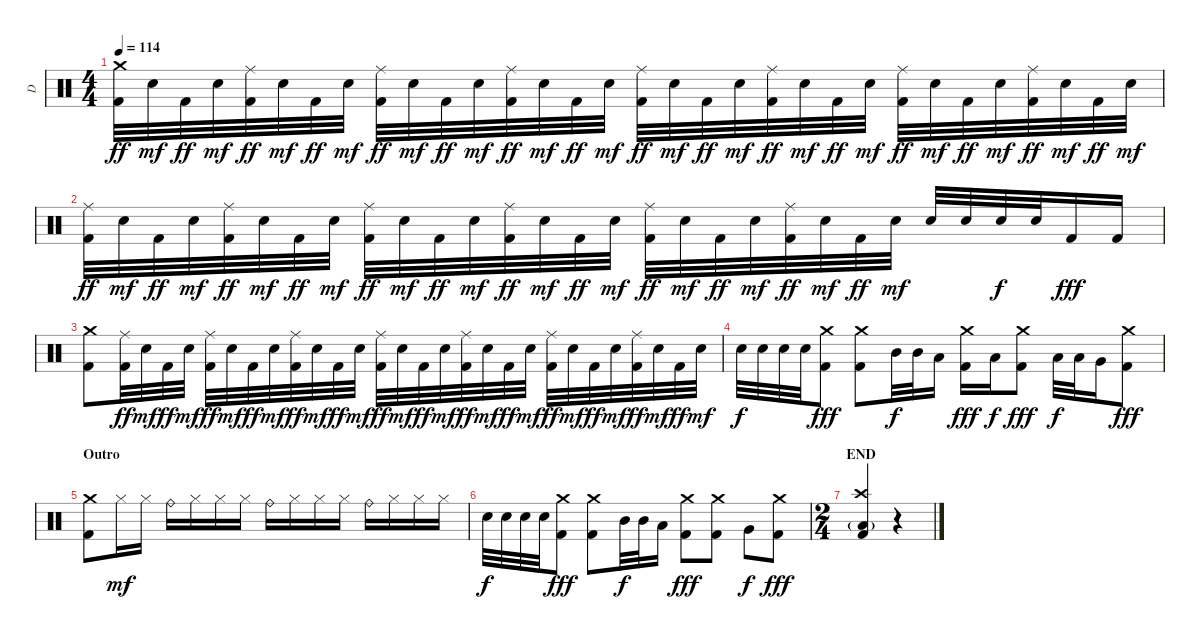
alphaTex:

\track ("D" "D") {instrument percussion}
\staff {score}
\articulation defaults
\ts (4 4)
\tempo 114
\clef neutral
\ks c
("Crash medium (hit)" "Kick (hit) 2").32{dy ff} "Electric Snare (hit)".32{dy mf} "Kick (hit) 2".32{dy ff} "Electric Snare (hit)".32{dy mf} ("Ride (middle)" "Kick (hit) 2").32{dy ff} "Electric Snare (hit)".32{dy mf} "Kick (hit) 2".32{dy ff} "Electric Snare (hit)".32{dy mf} ("Ride (middle)" "Kick (hit) 2").32{dy ff} "Electric Snare (hit)".32{dy mf} "Kick (hit) 2".32{dy ff} "Electric Snare (hit)".32{dy mf} ("Ride (middle)" "Kick (hit) 2").32{dy ff} "Electric Snare (hit)".32{dy mf} "Kick (hit) 2".32{dy ff} "Electric Snare (hit)".32{dy mf} ("Ride (middle)" "Kick (hit) 2").32{dy ff} "Electric Snare (hit)".32{dy mf} "Kick (hit) 2".32{dy ff} "Electric Snare (hit)".32{dy mf} ("Ride (middle)" "Kick (hit) 2").32{dy ff} "Electric Snare (hit)".32{dy mf} "Kick (hit) 2".32{dy ff} "Electric Snare (hit)".32{dy mf} ("Ride (middle)" "Kick (hit) 2").32{dy ff} "Electric Snare (hit)".32{dy mf} "Kick (hit) 2".32{dy ff} "Electric Snare (hit)".32{dy mf} ("Ride (middle)" "Kick (hit) 2").32{dy ff} "Electric Snare (hit)".32{dy mf} "Kick (hit) 2".32{dy ff} "Electric Snare (hit)".32{dy mf} |
("Ride (middle)" "Kick (hit) 2").32{dy ff} "Electric Snare (hit)".32{dy mf} "Kick (hit) 2".32{dy ff} "Electric Snare (hit)".32{dy mf} ("Ride (middle)" "Kick (hit) 2").32{dy ff} "Electric Snare (hit)".32{dy mf} "Kick (hit) 2".32{dy ff} "Electric Snare (hit)".32{dy mf} ("Ride (middle)" "Kick (hit) 2").32{dy ff} "Electric Snare (hit)".32{dy mf} "Kick (hit) 2".32{dy ff} "Electric Snare (hit)".32{dy mf} ("Ride (middle)" "Kick (hit) 2").32{dy ff} "Electric Snare (hit)".32{dy mf} "Kick (hit) 2".32{dy ff} "Electric Snare (hit)".32{dy mf} ("Ride (middle)" "Kick (hit) 2").32{dy ff} "Electric Snare (hit)".32{dy mf} "Kick (hit) 2".32{dy ff} "Electric Snare (hit)".32{dy mf} ("Ride (middle)" "Kick (hit) 2").32{dy ff} "Electric Snare (hit)".32{dy mf} "Kick (hit) 2".32{dy ff} "Electric Snare (hit)".32{dy mf} "Electric Snare (hit)".32 "Electric Snare (hit)".32 "Electric Snare (hit)".32{dy f} "Electric Snare (hit)".32 "Kick (hit) 2".16{dy fff} "Kick (hit) 2".16 |
("Crash medium (hit)" "Kick (hit) 2").8 ("Ride (middle)" "Kick (hit) 2").32{dy ff} "Electric Snare (hit)".32{dy mf} "Kick (hit) 2".32{dy ff} "Electric Snare (hit)".32{dy mf} ("Ride (middle)" "Kick (hit) 2").32{dy ff} "Electric Snare (hit)".32{dy mf} "Kick (hit) 2".32{dy ff} "Electric Snare (hit)".32{dy mf} ("Ride (middle)" "Kick (hit) 2").32{dy ff} "Electric Snare (hit)".32{dy mf} "Kick (hit) 2".32{dy ff} "Electric Snare (hit)".32{dy mf} ("Ride (middle)" "Kick (hit) 2").32{dy ff} "Electric Snare (hit)".32{dy mf} "Kick (hit) 2".32{dy ff} "Electric Snare (hit)".32{dy mf} ("Ride (middle)" "Kick (hit) 2").32{dy ff} "Electric Snare (hit)".32{dy mf} "Kick (hit) 2".32{dy ff} "Electric Snare (hit)".32{dy mf} ("Ride (middle)" "Kick (hit) 2").32{dy ff} "Electric Snare (hit)".32{dy mf} "Kick (hit) 2".32{dy ff} "Electric Snare (hit)".32{dy mf} ("Ride (middle)" "Kick (hit) 2").32{dy ff} "Electric Snare (hit)".32{dy mf} "Kick (hit) 2".32{dy ff} "Electric Snare (hit)".32{dy mf} |
"Electric Snare (hit)".32{dy f} "Electric Snare (hit)".32 "Electric Snare (hit)".32 "Electric Snare (hit)".32 ("Crash medium (hit)" "Kick (hit) 2").8{dy fff} ("Crash medium (hit)" "Kick (hit) 2").8 "Mid Tom (hit)".32{dy f} "Mid Tom (hit)".32 "Low Tom (hit)".16 ("Crash medium (hit)" "Kick (hit) 2").16{dy fff} "Low Tom (hit)".16{dy f} ("Crash medium (hit)" "Kick (hit) 2").8{dy fff} "Low Tom (hit)".32{dy f} "Low Tom (hit)".32 "Very Low Tom (hit)".16 ("Crash medium (hit)" "Kick (hit) 2").8{dy fff} |
\section ("" "Outro")
("Crash medium (hit)" "Kick (hit) 2").8 "Hi-Hat (closed)".16{dy mf} "Hi-Hat (closed)".16 "Ride (bell)".16 "Hi-Hat (closed)".16 "Hi-Hat (closed)".16 "Hi-Hat (closed)".16 "Ride (bell)".16 "Hi-Hat (closed)".16 "Hi-Hat (closed)".16 "Hi-Hat (closed)".16 "Ride (bell)".16 "Hi-Hat (closed)".16 "Hi-Hat (closed)".16 "Hi-Hat (closed)".16 |
\section ("" "")
"Electric Snare (hit)".32{dy f} "Electric Snare (hit)".32 "Electric Snare (hit)".32 "Electric Snare (hit)".32 ("Crash medium (hit)" "Kick (hit) 2").8{dy fff} ("Crash medium (hit)" "Kick (hit) 2").8 "Mid Tom (hit)".32{dy f} "Mid Tom (hit)".32 "Low Tom (hit)".16 ("Crash medium (hit)" "Kick (hit) 2").8{dy fff} ("Crash medium (hit)" "Kick (hit) 2").8 "Very Low Tom (hit)".8{dy f} ("Crash medium (hit)" "Kick (hit) 2").8{dy fff} |
\ts (2 4)
\section ("" "END")
("Crash high (hit)" "Low Floor Tom (hit)"{g} "Kick (hit) 2").4 r.4
